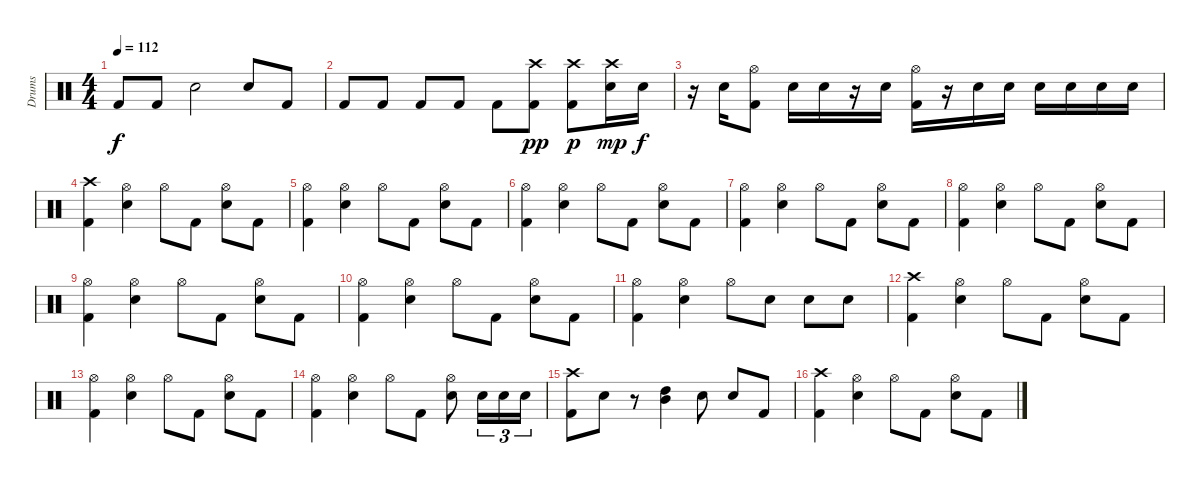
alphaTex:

\track ("Drums" "Drums") {instrument percussion}
\staff {score}
\articulation defaults
\ts (4 4)
\tempo 112
\clef neutral
\ks c "Kick (hit) 2".8{dy f} "Kick (hit) 2".8 "Snare (hit) 2".2 "Snare (hit) 2".8 "Kick (hit) 2".8
|
"Kick (hit) 2".8 "Kick (hit) 2".8 "Kick (hit) 2".8 "Kick (hit) 2".8 "Kick (hit) 2".8 ("Crash high (hit)" "Kick (hit) 2").8{dy pp} ("Crash high (hit)" "Kick (hit) 2").8{dy p} ("Crash high (hit)" "Snare (hit) 2").16{dy mp} "Snare (hit) 2".16{dy f} |
r.16 "Snare (hit) 2".16 ("Hi-Hat (open)" "Kick (hit) 2").8 "Snare (hit) 2".16 "Snare (hit) 2".16 r.16 "Snare (hit) 2".16 ("Hi-Hat (open)" "Kick (hit) 2").16 r.16 "Snare (hit) 2".16 "Snare (hit) 2".16 "Snare (hit) 2".16 "Snare (hit) 2".16 "Snare (hit) 2".16 "Snare (hit) 2".16 |
("Crash high (hit)" "Kick (hit) 2").4 ("Hi-Hat (open)" "Snare (hit) 2").4 "Hi-Hat (open)".8 "Kick (hit) 2".8 ("Hi-Hat (open)" "Snare (hit) 2").8 "Kick (hit) 2".8 |
("Hi-Hat (open)" "Kick (hit) 2").4 ("Hi-Hat (open)" "Snare (hit) 2").4 "Hi-Hat (open)".8 "Kick (hit) 2".8 ("Hi-Hat (open)" "Snare (hit) 2").8 "Kick (hit) 2".8 |
("Hi-Hat (open)" "Kick (hit) 2").4 ("Hi-Hat (open)" "Snare (hit) 2").4 "Hi-Hat (open)".8 "Kick (hit) 2".8 ("Hi-Hat (open)" "Snare (hit) 2").8 "Kick (hit) 2".8 |
("Hi-Hat (open)" "Kick (hit) 2").4 ("Hi-Hat (open)" "Snare (hit) 2").4 "Hi-Hat (open)".8 "Kick (hit) 2".8 ("Hi-Hat (open)" "Snare (hit) 2").8 "Kick (hit) 2".8 |
("Hi-Hat (open)" "Kick (hit) 2").4 ("Hi-Hat (open)" "Snare (hit) 2").4 "Hi-Hat (open)".8 "Kick (hit) 2".8 ("Hi-Hat (open)" "Snare (hit) 2").8 "Kick (hit) 2".8 |
("Hi-Hat (open)" "Kick (hit) 2").4 ("Hi-Hat (open)" "Snare (hit) 2").4 "Hi-Hat (open)".8 "Kick (hit) 2".8 ("Hi-Hat (open)" "Snare (hit) 2").8 "Kick (hit) 2".8 |
("Hi-Hat (open)" "Kick (hit) 2").4 ("Hi-Hat (open)" "Snare (hit) 2").4 "Hi-Hat (open)".8 "Kick (hit) 2".8 ("Hi-Hat (open)" "Snare (hit) 2").8 "Kick (hit) 2".8 |
("Hi-Hat (open)" "Kick (hit) 2").4 ("Hi-Hat (open)" "Snare (hit) 2").4 "Hi-Hat (open)".8 "Snare (hit) 2".8 "Snare (hit) 2".8 "Snare (hit) 2".8 |
("Crash high (hit)" "Kick (hit) 2").4 ("Hi-Hat (open)" "Snare (hit) 2").4 "Hi-Hat (open)".8 "Kick (hit) 2".8 ("Hi-Hat (open)" "Snare (hit) 2").8 "Kick (hit) 2".8 |
("Hi-Hat (open)" "Kick (hit) 2").4 ("Hi-Hat (open)" "Snare (hit) 2").4 "Hi-Hat (open)".8 "Kick (hit) 2".8 ("Hi-Hat (open)" "Snare (hit) 2").8 "Kick (hit) 2".8 |
("Hi-Hat (open)" "Kick (hit) 2").4 ("Hi-Hat (open)" "Snare (hit) 2").4 "Hi-Hat (open)".8 "Kick (hit) 2".8 ("Hi-Hat (open)" "Snare (hit) 2").8 "Snare (hit) 2".16{tu (3 2)} "Snare (hit) 2".16{tu (3 2)} "Snare (hit) 2".16{tu (3 2)} |
("Crash high (hit)" "Kick (hit) 2").8 "Snare (hit) 2".8 r.8 ("Mid Tom (hit)" "High Tom (hit)").4 "Snare (hit) 2".8 "Snare (hit) 2".8 "Kick (hit) 2".8 |
("Crash high (hit)" "Kick (hit) 2").4 ("Hi-Hat (open)" "Snare (hit) 2").4 "Hi-Hat (open)".8 "Kick (hit) 2".8 ("Hi-Hat (open)" "Snare (hit) 2").8 "Kick (hit) 2".8
